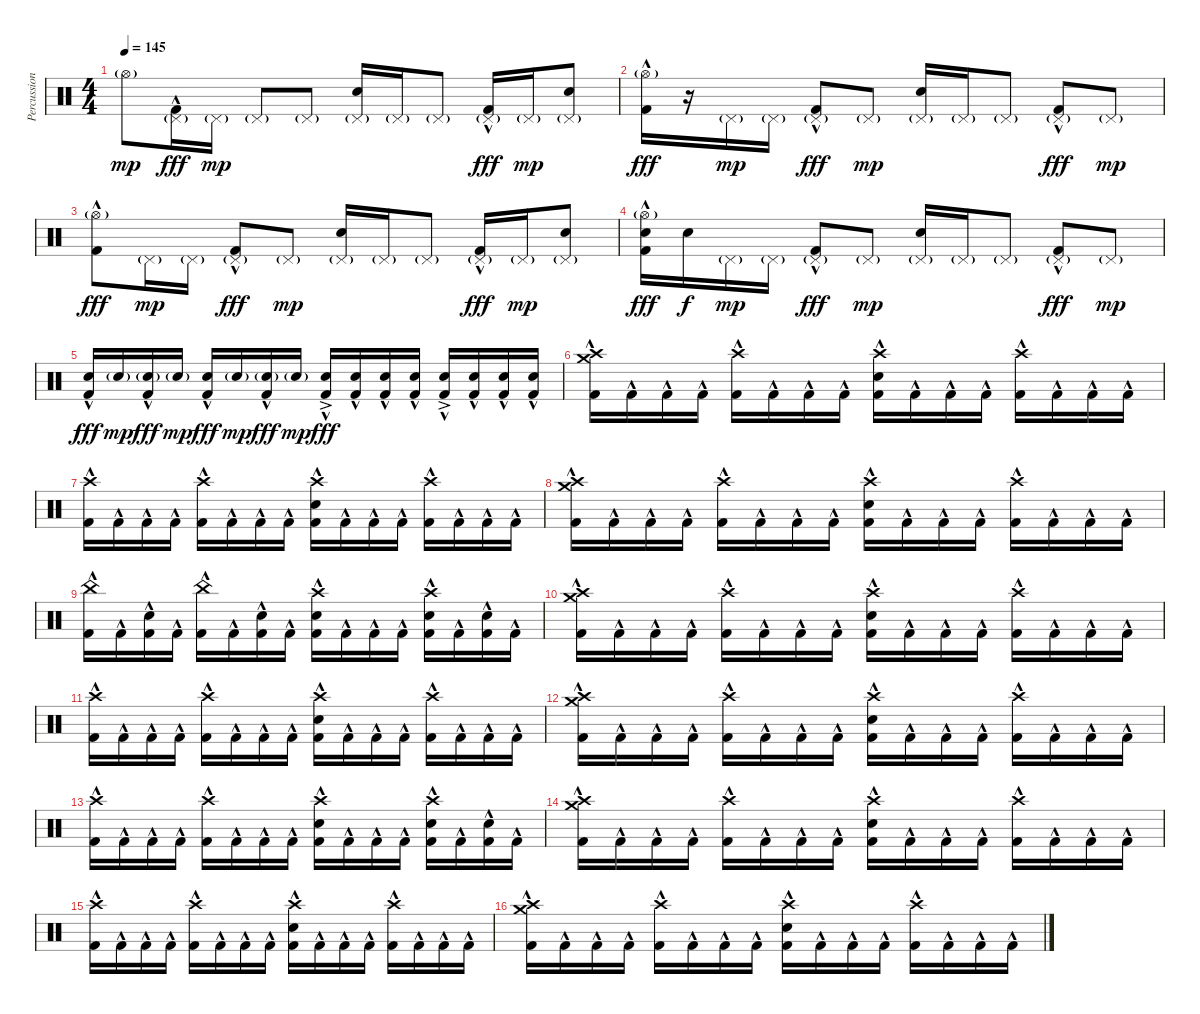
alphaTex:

\track ("Percussion" "Percussion") {instrument percussion}
\staff {score}
\articulation defaults
\ts (4 4)
\tempo 145
\clef neutral
\ks c "Hi-Hat (open)"{g}.8{dy mp}
("Pedal Hi-Hat (hit)"{g} "Kick (hit) 2"{hac}).16{dy fff} "Pedal Hi-Hat (hit)"{g}.16{dy mp} "Pedal Hi-Hat (hit)"{g}.8 "Pedal Hi-Hat (hit)"{g}.8 ("Pedal Hi-Hat (hit)"{g} "Snare (hit) 2").16 "Pedal Hi-Hat (hit)"{g}.16 "Pedal Hi-Hat (hit)"{g}.8 ("Pedal Hi-Hat (hit)"{g} "Kick (hit) 2"{hac}).16{dy fff} "Pedal Hi-Hat (hit)"{g}.16{dy mp} ("Pedal Hi-Hat (hit)"{g} "Snare (hit) 2").8 |
("Hi-Hat (open)"{g} "Kick (hit) 2"{hac}).16{dy fff} r.16 "Pedal Hi-Hat (hit)"{g}.16{dy mp} "Pedal Hi-Hat (hit)"{g}.16 ("Pedal Hi-Hat (hit)"{g} "Kick (hit) 2"{hac}).8{dy fff} "Pedal Hi-Hat (hit)"{g}.8{dy mp} ("Pedal Hi-Hat (hit)"{g} "Snare (hit) 2").16 "Pedal Hi-Hat (hit)"{g}.16 "Pedal Hi-Hat (hit)"{g}.8 ("Pedal Hi-Hat (hit)"{g} "Kick (hit) 2"{hac}).8{dy fff} "Pedal Hi-Hat (hit)"{g}.8{dy mp} |
("Hi-Hat (open)"{g} "Kick (hit) 2"{hac}).8{dy fff} "Pedal Hi-Hat (hit)"{g}.16{dy mp} "Pedal Hi-Hat (hit)"{g}.16 ("Pedal Hi-Hat (hit)"{g} "Kick (hit) 2"{hac}).8{dy fff} "Pedal Hi-Hat (hit)"{g}.8{dy mp} ("Pedal Hi-Hat (hit)"{g} "Snare (hit) 2").16 "Pedal Hi-Hat (hit)"{g}.16 "Pedal Hi-Hat (hit)"{g}.8 ("Pedal Hi-Hat (hit)"{g} "Kick (hit) 2"{hac}).16{dy fff} "Pedal Hi-Hat (hit)"{g}.16{dy mp} ("Pedal Hi-Hat (hit)"{g} "Snare (hit) 2").8 |
("Hi-Hat (open)"{g} "Snare (hit) 2" "Kick (hit) 2"{hac}).16{dy fff} "Snare (hit) 2".16{dy f} "Pedal Hi-Hat (hit)"{g}.16{dy mp} "Pedal Hi-Hat (hit)"{g}.16 ("Pedal Hi-Hat (hit)"{g} "Kick (hit) 2"{hac}).8{dy fff} "Pedal Hi-Hat (hit)"{g}.8{dy mp} ("Pedal Hi-Hat (hit)"{g} "Snare (hit) 2").16 "Pedal Hi-Hat (hit)"{g}.16 "Pedal Hi-Hat (hit)"{g}.8 ("Pedal Hi-Hat (hit)"{g} "Kick (hit) 2"{hac}).8{dy fff} "Pedal Hi-Hat (hit)"{g}.8{dy mp} |
("Snare (hit) 2" "Kick (hit) 2"{hac}).16{dy fff} "Snare (hit) 2"{g}.16{dy mp} ("Snare (hit) 2"{g} "Kick (hit) 2"{hac}).16{dy fff} "Snare (hit) 2"{g}.16{dy mp} ("Snare (hit) 2" "Kick (hit) 2"{hac}).16{dy fff} "Snare (hit) 2"{g}.16{dy mp} ("Snare (hit) 2"{g} "Kick (hit) 2"{hac}).16{dy fff} "Snare (hit) 2"{g}.16{dy mp} ("Snare (hit) 2"{ac} "Kick (hit) 2"{hac}).16{dy fff} ("Snare (hit) 2" "Kick (hit) 2"{hac}).16 ("Snare (hit) 2" "Kick (hit) 2"{hac}).16 ("Snare (hit) 2" "Kick (hit) 2"{hac}).16 ("Snare (hit) 2"{ac} "Kick (hit) 2"{hac}).16 ("Snare (hit) 2" "Kick (hit) 2"{hac}).16 ("Snare (hit) 2" "Kick (hit) 2"{hac}).16 ("Snare (hit) 2" "Kick (hit) 2"{hac}).16 |
("Crash medium (hit)" "Crash high (hit)" "Kick (hit) 2"{hac}).16 "Kick (hit) 2"{hac}.16 "Kick (hit) 2"{hac}.16 "Kick (hit) 2"{hac}.16 ("Crash high (hit)" "Kick (hit) 2"{hac}).16 "Kick (hit) 2"{hac}.16 "Kick (hit) 2"{hac}.16 "Kick (hit) 2"{hac}.16 ("Crash high (hit)" "Snare (hit) 2" "Kick (hit) 2"{hac}).16 "Kick (hit) 2"{hac}.16 "Kick (hit) 2"{hac}.16 "Kick (hit) 2"{hac}.16 ("Crash high (hit)" "Kick (hit) 2"{hac}).16 "Kick (hit) 2"{hac}.16 "Kick (hit) 2"{hac}.16 "Kick (hit) 2"{hac}.16 |
("Crash high (hit)" "Kick (hit) 2"{hac}).16 "Kick (hit) 2"{hac}.16 "Kick (hit) 2"{hac}.16 "Kick (hit) 2"{hac}.16 ("Crash high (hit)" "Kick (hit) 2"{hac}).16 "Kick (hit) 2"{hac}.16 "Kick (hit) 2"{hac}.16 "Kick (hit) 2"{hac}.16 ("Crash high (hit)" "Snare (hit) 2" "Kick (hit) 2"{hac}).16 "Kick (hit) 2"{hac}.16 "Kick (hit) 2"{hac}.16 "Kick (hit) 2"{hac}.16 ("Crash high (hit)" "Kick (hit) 2"{hac}).16 "Kick (hit) 2"{hac}.16 "Kick (hit) 2"{hac}.16 "Kick (hit) 2"{hac}.16 |
("Crash medium (hit)" "Crash high (hit)" "Kick (hit) 2"{hac}).16 "Kick (hit) 2"{hac}.16 "Kick (hit) 2"{hac}.16 "Kick (hit) 2"{hac}.16 ("Crash high (hit)" "Kick (hit) 2"{hac}).16 "Kick (hit) 2"{hac}.16 "Kick (hit) 2"{hac}.16 "Kick (hit) 2"{hac}.16 ("Crash high (hit)" "Snare (hit) 2" "Kick (hit) 2"{hac}).16 "Kick (hit) 2"{hac}.16 "Kick (hit) 2"{hac}.16 "Kick (hit) 2"{hac}.16 ("Crash high (hit)" "Kick (hit) 2"{hac}).16 "Kick (hit) 2"{hac}.16 "Kick (hit) 2"{hac}.16 "Kick (hit) 2"{hac}.16 |
("China (hit)" "Kick (hit) 2"{hac}).16 "Kick (hit) 2"{hac}.16 ("Snare (hit) 2" "Kick (hit) 2"{hac}).16 "Kick (hit) 2"{hac}.16 ("China (hit)" "Kick (hit) 2"{hac}).16 "Kick (hit) 2"{hac}.16 ("Snare (hit) 2" "Kick (hit) 2"{hac}).16 "Kick (hit) 2"{hac}.16 ("Crash high (hit)" "Snare (hit) 2" "Kick (hit) 2"{hac}).16 "Kick (hit) 2"{hac}.16 "Kick (hit) 2"{hac}.16 "Kick (hit) 2"{hac}.16 ("Crash high (hit)" "Snare (hit) 2" "Kick (hit) 2"{hac}).16 "Kick (hit) 2"{hac}.16 ("Snare (hit) 2" "Kick (hit) 2"{hac}).16 "Kick (hit) 2"{hac}.16 |
("Crash medium (hit)" "Crash high (hit)" "Kick (hit) 2"{hac}).16 "Kick (hit) 2"{hac}.16 "Kick (hit) 2"{hac}.16 "Kick (hit) 2"{hac}.16 ("Crash high (hit)" "Kick (hit) 2"{hac}).16 "Kick (hit) 2"{hac}.16 "Kick (hit) 2"{hac}.16 "Kick (hit) 2"{hac}.16 ("Crash high (hit)" "Snare (hit) 2" "Kick (hit) 2"{hac}).16 "Kick (hit) 2"{hac}.16 "Kick (hit) 2"{hac}.16 "Kick (hit) 2"{hac}.16 ("Crash high (hit)" "Kick (hit) 2"{hac}).16 "Kick (hit) 2"{hac}.16 "Kick (hit) 2"{hac}.16 "Kick (hit) 2"{hac}.16 |
("Crash high (hit)" "Kick (hit) 2"{hac}).16 "Kick (hit) 2"{hac}.16 "Kick (hit) 2"{hac}.16 "Kick (hit) 2"{hac}.16 ("Crash high (hit)" "Kick (hit) 2"{hac}).16 "Kick (hit) 2"{hac}.16 "Kick (hit) 2"{hac}.16 "Kick (hit) 2"{hac}.16 ("Crash high (hit)" "Snare (hit) 2" "Kick (hit) 2"{hac}).16 "Kick (hit) 2"{hac}.16 "Kick (hit) 2"{hac}.16 "Kick (hit) 2"{hac}.16 ("Crash high (hit)" "Kick (hit) 2"{hac}).16 "Kick (hit) 2"{hac}.16 "Kick (hit) 2"{hac}.16 "Kick (hit) 2"{hac}.16 |
("Crash medium (hit)" "Crash high (hit)" "Kick (hit) 2"{hac}).16 "Kick (hit) 2"{hac}.16 "Kick (hit) 2"{hac}.16 "Kick (hit) 2"{hac}.16 ("Crash high (hit)" "Kick (hit) 2"{hac}).16 "Kick (hit) 2"{hac}.16 "Kick (hit) 2"{hac}.16 "Kick (hit) 2"{hac}.16 ("Crash high (hit)" "Snare (hit) 2" "Kick (hit) 2"{hac}).16 "Kick (hit) 2"{hac}.16 "Kick (hit) 2"{hac}.16 "Kick (hit) 2"{hac}.16 ("Crash high (hit)" "Kick (hit) 2"{hac}).16 "Kick (hit) 2"{hac}.16 "Kick (hit) 2"{hac}.16 "Kick (hit) 2"{hac}.16 |
("Crash high (hit)" "Kick (hit) 2"{hac}).16 "Kick (hit) 2"{hac}.16 "Kick (hit) 2"{hac}.16 "Kick (hit) 2"{hac}.16 ("Crash high (hit)" "Kick (hit) 2"{hac}).16 "Kick (hit) 2"{hac}.16 "Kick (hit) 2"{hac}.16 "Kick (hit) 2"{hac}.16 ("Crash high (hit)" "Snare (hit) 2" "Kick (hit) 2"{hac}).16 "Kick (hit) 2"{hac}.16 "Kick (hit) 2"{hac}.16 "Kick (hit) 2"{hac}.16 ("Crash high (hit)" "Snare (hit) 2" "Kick (hit) 2"{hac}).16 "Kick (hit) 2"{hac}.16 ("Snare (hit) 2" "Kick (hit) 2"{hac}).16 "Kick (hit) 2"{hac}.16 |
("Crash medium (hit)" "Crash high (hit)" "Kick (hit) 2"{hac}).16 "Kick (hit) 2"{hac}.16 "Kick (hit) 2"{hac}.16 "Kick (hit) 2"{hac}.16 ("Crash high (hit)" "Kick (hit) 2"{hac}).16 "Kick (hit) 2"{hac}.16 "Kick (hit) 2"{hac}.16 "Kick (hit) 2"{hac}.16 ("Crash high (hit)" "Snare (hit) 2" "Kick (hit) 2"{hac}).16 "Kick (hit) 2"{hac}.16 "Kick (hit) 2"{hac}.16 "Kick (hit) 2"{hac}.16 ("Crash high (hit)" "Kick (hit) 2"{hac}).16 "Kick (hit) 2"{hac}.16 "Kick (hit) 2"{hac}.16 "Kick (hit) 2"{hac}.16 |
("Crash high (hit)" "Kick (hit) 2"{hac}).16 "Kick (hit) 2"{hac}.16 "Kick (hit) 2"{hac}.16 "Kick (hit) 2"{hac}.16 ("Crash high (hit)" "Kick (hit) 2"{hac}).16 "Kick (hit) 2"{hac}.16 "Kick (hit) 2"{hac}.16 "Kick (hit) 2"{hac}.16 ("Crash high (hit)" "Snare (hit) 2" "Kick (hit) 2"{hac}).16 "Kick (hit) 2"{hac}.16 "Kick (hit) 2"{hac}.16 "Kick (hit) 2"{hac}.16 ("Crash high (hit)" "Kick (hit) 2"{hac}).16 "Kick (hit) 2"{hac}.16 "Kick (hit) 2"{hac}.16 "Kick (hit) 2"{hac}.16 |
("Crash medium (hit)" "Crash high (hit)" "Kick (hit) 2"{hac}).16 "Kick (hit) 2"{hac}.16 "Kick (hit) 2"{hac}.16 "Kick (hit) 2"{hac}.16 ("Crash high (hit)" "Kick (hit) 2"{hac}).16 "Kick (hit) 2"{hac}.16 "Kick (hit) 2"{hac}.16 "Kick (hit) 2"{hac}.16 ("Crash high (hit)" "Snare (hit) 2" "Kick (hit) 2"{hac}).16 "Kick (hit) 2"{hac}.16 "Kick (hit) 2"{hac}.16 "Kick (hit) 2"{hac}.16 ("Crash high (hit)" "Kick (hit) 2"{hac}).16 "Kick (hit) 2"{hac}.16 "Kick (hit) 2"{hac}.16 "Kick (hit) 2"{hac}.16
